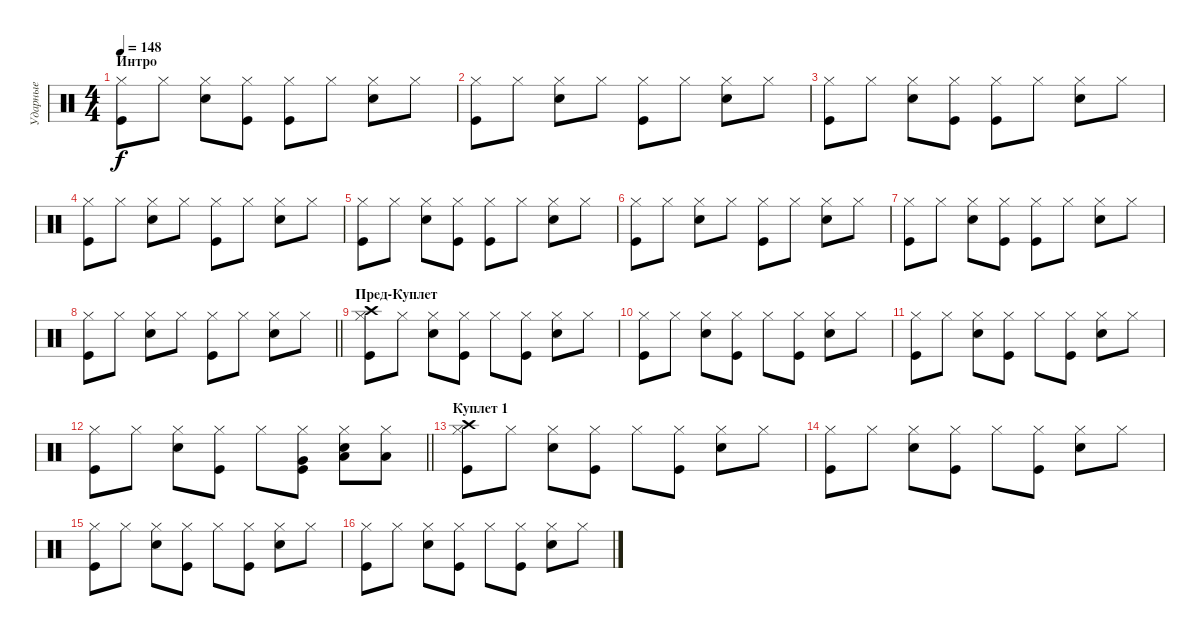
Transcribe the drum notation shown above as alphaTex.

\track ("Ударные" "Ударные") {instrument percussion}
\staff {score}
\articulation defaults
\ts (4 4)
\section ("" "Интро")
\tempo 148
\clef neutral
\ks c
("Kick (hit)" "Hi-Hat (closed)").8{dy f} "Hi-Hat (closed)".8 ("Snare (hit) 2" "Hi-Hat (closed)").8 ("Kick (hit)" "Hi-Hat (closed)").8 ("Kick (hit)" "Hi-Hat (closed)").8 "Hi-Hat (closed)".8 ("Snare (hit) 2" "Hi-Hat (closed)").8 "Hi-Hat (closed)".8 |
("Kick (hit)" "Hi-Hat (closed)").8 "Hi-Hat (closed)".8 ("Snare (hit) 2" "Hi-Hat (closed)").8 "Hi-Hat (closed)".8 ("Kick (hit)" "Hi-Hat (closed)").8 "Hi-Hat (closed)".8 ("Snare (hit) 2" "Hi-Hat (closed)").8 "Hi-Hat (closed)".8 |
("Kick (hit)" "Hi-Hat (closed)").8 "Hi-Hat (closed)".8 ("Snare (hit) 2" "Hi-Hat (closed)").8 ("Kick (hit)" "Hi-Hat (closed)").8 ("Kick (hit)" "Hi-Hat (closed)").8 "Hi-Hat (closed)".8 ("Snare (hit) 2" "Hi-Hat (closed)").8 "Hi-Hat (closed)".8 |
("Kick (hit)" "Hi-Hat (closed)").8 "Hi-Hat (closed)".8 ("Snare (hit) 2" "Hi-Hat (closed)").8 "Hi-Hat (closed)".8 ("Kick (hit)" "Hi-Hat (closed)").8 "Hi-Hat (closed)".8 ("Snare (hit) 2" "Hi-Hat (closed)").8 "Hi-Hat (closed)".8 |
("Kick (hit)" "Hi-Hat (closed)").8 "Hi-Hat (closed)".8 ("Snare (hit) 2" "Hi-Hat (closed)").8 ("Kick (hit)" "Hi-Hat (closed)").8 ("Kick (hit)" "Hi-Hat (closed)").8 "Hi-Hat (closed)".8 ("Snare (hit) 2" "Hi-Hat (closed)").8 "Hi-Hat (closed)".8 |
("Kick (hit)" "Hi-Hat (closed)").8 "Hi-Hat (closed)".8 ("Snare (hit) 2" "Hi-Hat (closed)").8 "Hi-Hat (closed)".8 ("Kick (hit)" "Hi-Hat (closed)").8 "Hi-Hat (closed)".8 ("Snare (hit) 2" "Hi-Hat (closed)").8 "Hi-Hat (closed)".8 |
("Kick (hit)" "Hi-Hat (closed)").8 "Hi-Hat (closed)".8 ("Snare (hit) 2" "Hi-Hat (closed)").8 ("Kick (hit)" "Hi-Hat (closed)").8 ("Kick (hit)" "Hi-Hat (closed)").8 "Hi-Hat (closed)".8 ("Snare (hit) 2" "Hi-Hat (closed)").8 "Hi-Hat (closed)".8 |
\barLineRight lightlight
("Kick (hit)" "Hi-Hat (closed)").8 "Hi-Hat (closed)".8 ("Snare (hit) 2" "Hi-Hat (closed)").8 "Hi-Hat (closed)".8 ("Kick (hit)" "Hi-Hat (closed)").8 "Hi-Hat (closed)".8 ("Snare (hit) 2" "Hi-Hat (closed)").8 "Hi-Hat (closed)".8 |
\section ("" "Пред-Куплет")
("Kick (hit)" "Hi-Hat (closed)" "Crash high (hit)").8 "Hi-Hat (closed)".8 ("Snare (hit) 2" "Hi-Hat (closed)").8 ("Kick (hit)" "Hi-Hat (closed)").8 "Hi-Hat (closed)".8 ("Kick (hit)" "Hi-Hat (closed)").8 ("Snare (hit) 2" "Hi-Hat (closed)").8 "Hi-Hat (closed)".8 |
("Kick (hit)" "Hi-Hat (closed)").8 "Hi-Hat (closed)".8 ("Snare (hit) 2" "Hi-Hat (closed)").8 ("Kick (hit)" "Hi-Hat (closed)").8 "Hi-Hat (closed)".8 ("Kick (hit)" "Hi-Hat (closed)").8 ("Snare (hit) 2" "Hi-Hat (closed)").8 "Hi-Hat (closed)".8 |
("Kick (hit)" "Hi-Hat (closed)").8 "Hi-Hat (closed)".8 ("Snare (hit) 2" "Hi-Hat (closed)").8 ("Kick (hit)" "Hi-Hat (closed)").8 "Hi-Hat (closed)".8 ("Kick (hit)" "Hi-Hat (closed)").8 ("Snare (hit) 2" "Hi-Hat (closed)").8 "Hi-Hat (closed)".8 |
\barLineRight lightlight
("Kick (hit)" "Hi-Hat (closed)").8 "Hi-Hat (closed)".8 ("Snare (hit) 2" "Hi-Hat (closed)").8 ("Kick (hit)" "Hi-Hat (closed)").8 "Hi-Hat (closed)".8 ("Kick (hit)" "Hi-Hat (closed)" "Very Low Tom (hit)").8 ("Snare (hit) 2" "Hi-Hat (closed)" "Low Floor Tom (hit)").8 ("Hi-Hat (closed)" "Low Floor Tom (hit)").8 |
\section ("" "Куплет 1")
("Kick (hit)" "Hi-Hat (closed)" "Crash high (hit)").8 "Hi-Hat (closed)".8 ("Snare (hit) 2" "Hi-Hat (closed)").8 ("Kick (hit)" "Hi-Hat (closed)").8 "Hi-Hat (closed)".8 ("Kick (hit)" "Hi-Hat (closed)").8 ("Snare (hit) 2" "Hi-Hat (closed)").8 "Hi-Hat (closed)".8 |
("Kick (hit)" "Hi-Hat (closed)").8 "Hi-Hat (closed)".8 ("Snare (hit) 2" "Hi-Hat (closed)").8 ("Kick (hit)" "Hi-Hat (closed)").8 "Hi-Hat (closed)".8 ("Kick (hit)" "Hi-Hat (closed)").8 ("Snare (hit) 2" "Hi-Hat (closed)").8 "Hi-Hat (closed)".8 |
("Kick (hit)" "Hi-Hat (closed)").8 "Hi-Hat (closed)".8 ("Snare (hit) 2" "Hi-Hat (closed)").8 ("Kick (hit)" "Hi-Hat (closed)").8 "Hi-Hat (closed)".8 ("Kick (hit)" "Hi-Hat (closed)").8 ("Snare (hit) 2" "Hi-Hat (closed)").8 "Hi-Hat (closed)".8 |
("Kick (hit)" "Hi-Hat (closed)").8 "Hi-Hat (closed)".8 ("Snare (hit) 2" "Hi-Hat (closed)").8 ("Kick (hit)" "Hi-Hat (closed)").8 "Hi-Hat (closed)".8 ("Kick (hit)" "Hi-Hat (closed)").8 ("Snare (hit) 2" "Hi-Hat (closed)").8 "Hi-Hat (closed)".8
